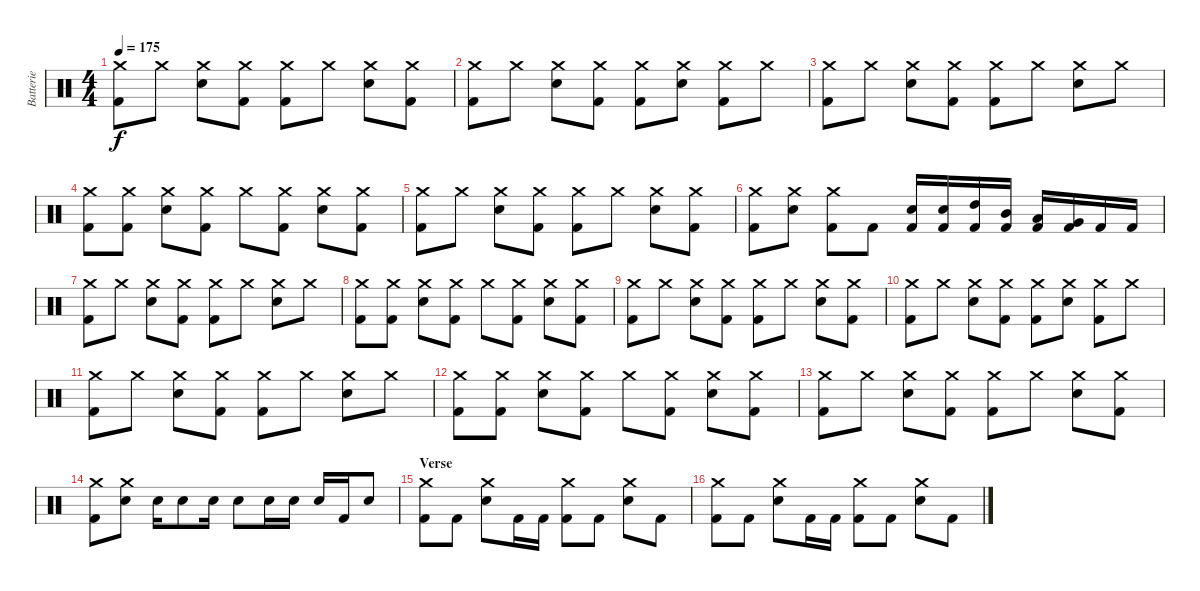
\track ("Batterie" "Batterie") {instrument percussion}
\staff {score}
\articulation defaults
\ts (4 4)
\tempo 175
\clef neutral
\ks c
("Crash medium (hit)" "Kick (hit) 2").8{dy f} "Crash medium (hit)".8 ("Crash medium (hit)" "Electric Snare (hit)").8 ("Crash medium (hit)" "Kick (hit) 2").8 ("Crash medium (hit)" "Kick (hit) 2").8 "Crash medium (hit)".8 ("Crash medium (hit)" "Electric Snare (hit)").8 ("Crash medium (hit)" "Kick (hit) 2").8 |
("Crash medium (hit)" "Kick (hit) 2").8 "Crash medium (hit)".8 ("Crash medium (hit)" "Electric Snare (hit)").8 ("Crash medium (hit)" "Kick (hit) 2").8 ("Crash medium (hit)" "Kick (hit) 2").8 ("Crash medium (hit)" "Electric Snare (hit)").8 ("Crash medium (hit)" "Kick (hit) 2").8 "Crash medium (hit)".8 |
("Crash medium (hit)" "Kick (hit) 2").8 "Crash medium (hit)".8 ("Crash medium (hit)" "Electric Snare (hit)").8 ("Crash medium (hit)" "Kick (hit) 2").8 ("Crash medium (hit)" "Kick (hit) 2").8 "Crash medium (hit)".8 ("Crash medium (hit)" "Electric Snare (hit)").8 "Crash medium (hit)".8 |
("Crash medium (hit)" "Kick (hit) 2").8 ("Crash medium (hit)" "Kick (hit) 2").8 ("Crash medium (hit)" "Electric Snare (hit)").8 ("Crash medium (hit)" "Kick (hit) 2").8 "Crash medium (hit)".8 ("Crash medium (hit)" "Kick (hit) 2").8 ("Crash medium (hit)" "Electric Snare (hit)").8 ("Crash medium (hit)" "Kick (hit) 2").8 |
("Crash medium (hit)" "Kick (hit) 2").8 "Crash medium (hit)".8 ("Crash medium (hit)" "Electric Snare (hit)").8 ("Crash medium (hit)" "Kick (hit) 2").8 ("Crash medium (hit)" "Kick (hit) 2").8 "Crash medium (hit)".8 ("Crash medium (hit)" "Electric Snare (hit)").8 ("Crash medium (hit)" "Kick (hit) 2").8 |
("Crash medium (hit)" "Kick (hit) 2").8 ("Crash medium (hit)" "Electric Snare (hit)").8 ("Crash medium (hit)" "Kick (hit) 2").8 "Kick (hit) 2".8 ("Electric Snare (hit)" "Kick (hit) 2").16 ("Electric Snare (hit)" "Kick (hit) 2").16 ("High Tom (hit)" "Kick (hit) 2").16 ("Mid Tom (hit)" "Kick (hit) 2").16 ("Low Tom (hit)" "Kick (hit) 2").16 ("Very Low Tom (hit)" "Kick (hit) 2").16 "Kick (hit) 2".16 "Kick (hit) 2".16 |
("Crash medium (hit)" "Kick (hit) 2").8 "Crash medium (hit)".8 ("Crash medium (hit)" "Electric Snare (hit)").8 ("Crash medium (hit)" "Kick (hit) 2").8 ("Crash medium (hit)" "Kick (hit) 2").8 "Crash medium (hit)".8 ("Crash medium (hit)" "Electric Snare (hit)").8 "Crash medium (hit)".8 |
("Crash medium (hit)" "Kick (hit) 2").8 ("Crash medium (hit)" "Kick (hit) 2").8 ("Crash medium (hit)" "Electric Snare (hit)").8 ("Crash medium (hit)" "Kick (hit) 2").8 "Crash medium (hit)".8 ("Crash medium (hit)" "Kick (hit) 2").8 ("Crash medium (hit)" "Electric Snare (hit)").8 ("Crash medium (hit)" "Kick (hit) 2").8 |
("Crash medium (hit)" "Kick (hit) 2").8 "Crash medium (hit)".8 ("Crash medium (hit)" "Electric Snare (hit)").8 ("Crash medium (hit)" "Kick (hit) 2").8 ("Crash medium (hit)" "Kick (hit) 2").8 "Crash medium (hit)".8 ("Crash medium (hit)" "Electric Snare (hit)").8 ("Crash medium (hit)" "Kick (hit) 2").8 |
("Crash medium (hit)" "Kick (hit) 2").8 "Crash medium (hit)".8 ("Crash medium (hit)" "Electric Snare (hit)").8 ("Crash medium (hit)" "Kick (hit) 2").8 ("Crash medium (hit)" "Kick (hit) 2").8 ("Crash medium (hit)" "Electric Snare (hit)").8 ("Crash medium (hit)" "Kick (hit) 2").8 "Crash medium (hit)".8 |
("Crash medium (hit)" "Kick (hit) 2").8 "Crash medium (hit)".8 ("Crash medium (hit)" "Electric Snare (hit)").8 ("Crash medium (hit)" "Kick (hit) 2").8 ("Crash medium (hit)" "Kick (hit) 2").8 "Crash medium (hit)".8 ("Crash medium (hit)" "Electric Snare (hit)").8 "Crash medium (hit)".8 |
("Crash medium (hit)" "Kick (hit) 2").8 ("Crash medium (hit)" "Kick (hit) 2").8 ("Crash medium (hit)" "Electric Snare (hit)").8 ("Crash medium (hit)" "Kick (hit) 2").8 "Crash medium (hit)".8 ("Crash medium (hit)" "Kick (hit) 2").8 ("Crash medium (hit)" "Electric Snare (hit)").8 ("Crash medium (hit)" "Kick (hit) 2").8 |
("Crash medium (hit)" "Kick (hit) 2").8 "Crash medium (hit)".8 ("Crash medium (hit)" "Electric Snare (hit)").8 ("Crash medium (hit)" "Kick (hit) 2").8 ("Crash medium (hit)" "Kick (hit) 2").8 "Crash medium (hit)".8 ("Crash medium (hit)" "Electric Snare (hit)").8 ("Crash medium (hit)" "Kick (hit) 2").8 |
("Crash medium (hit)" "Kick (hit) 2").8 ("Crash medium (hit)" "Electric Snare (hit)").8 "Electric Snare (hit)".16 "Electric Snare (hit)".8 "Electric Snare (hit)".16 "Electric Snare (hit)".8 "Electric Snare (hit)".16 "Electric Snare (hit)".16 "Electric Snare (hit)".16 "Kick (hit) 2".16 "Electric Snare (hit)".8 |
\section ("" "Verse")
("Crash medium (hit)" "Kick (hit) 2").8 "Kick (hit) 2".8 ("Crash medium (hit)" "Electric Snare (hit)").8 "Kick (hit) 2".16 "Kick (hit) 2".16 ("Crash medium (hit)" "Kick (hit) 2").8 "Kick (hit) 2".8 ("Crash medium (hit)" "Electric Snare (hit)").8 "Kick (hit) 2".8 |
("Crash medium (hit)" "Kick (hit) 2").8 "Kick (hit) 2".8 ("Crash medium (hit)" "Electric Snare (hit)").8 "Kick (hit) 2".16 "Kick (hit) 2".16 ("Crash medium (hit)" "Kick (hit) 2").8 "Kick (hit) 2".8 ("Crash medium (hit)" "Electric Snare (hit)").8 "Kick (hit) 2".8
